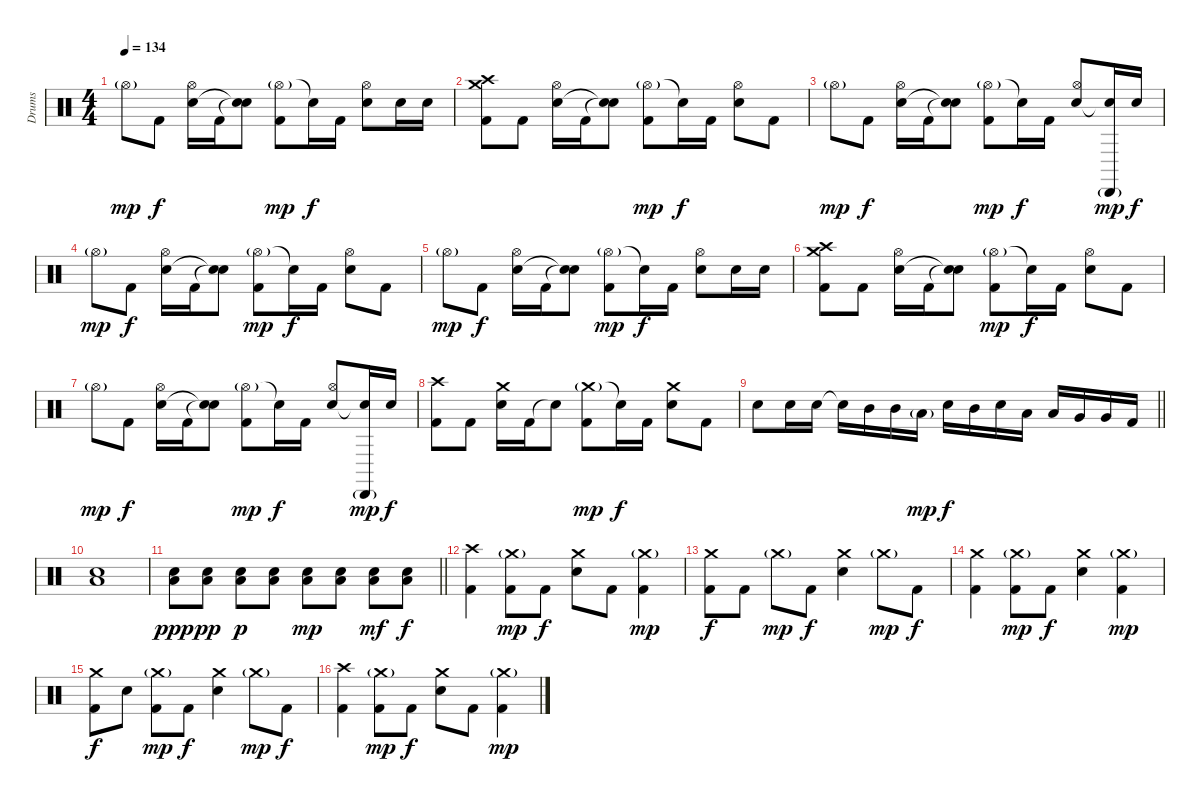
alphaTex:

\track ("Drums" "Drums") {instrument percussion}
\staff {score}
\articulation defaults
\ts (4 4)
\tempo 134
\clef neutral
\ks c "Hi-Hat (open)"{g}.8{dy mp} "Kick (hit) 2".8{dy f}
("Hi-Hat (open)" "Electric Snare (hit)").16 "Kick (hit) 2".16 ("Snare (hit)"{t} "Snare (hit)"{t}).8 ("Hi-Hat (open)"{g} "Kick (hit) 2").8{dy mp} "Snare (hit)"{t}.16{dy f} "Kick (hit) 2".16 ("Hi-Hat (open)" "Electric Snare (hit)").8 "Electric Snare (hit)".16 "Electric Snare (hit)".16 |
("Crash high (hit)" "Crash medium (hit)" "Kick (hit) 2").8 "Kick (hit) 2".8 ("Hi-Hat (open)" "Electric Snare (hit)").16 "Kick (hit) 2".16 ("Snare (hit)"{t} "Snare (hit)"{t}).8 ("Hi-Hat (open)"{g} "Kick (hit) 2").8{dy mp} "Snare (hit)"{t}.16{dy f} "Kick (hit) 2".16 ("Hi-Hat (open)" "Electric Snare (hit)").8 "Kick (hit) 2".8 |
"Hi-Hat (open)"{g}.8{dy mp} "Kick (hit) 2".8{dy f} ("Hi-Hat (open)" "Electric Snare (hit)").16 "Kick (hit) 2".16 ("Snare (hit)"{t} "Snare (hit)"{t}).8 ("Hi-Hat (open)"{g} "Kick (hit) 2").8{dy mp} "Snare (hit)"{t}.16{dy f} "Kick (hit) 2".16 ("Hi-Hat (open)" "Electric Snare (hit)").8 ("Cabasa (hit)"{g} "Snare (hit)"{t}).16{dy mp} "Electric Snare (hit)".16{dy f} |
"Hi-Hat (open)"{g}.8{dy mp} "Kick (hit) 2".8{dy f} ("Hi-Hat (open)" "Electric Snare (hit)").16 "Kick (hit) 2".16 ("Snare (hit)"{t} "Snare (hit)"{t}).8 ("Hi-Hat (open)"{g} "Kick (hit) 2").8{dy mp} "Snare (hit)"{t}.16{dy f} "Kick (hit) 2".16 ("Hi-Hat (open)" "Electric Snare (hit)").8 "Kick (hit) 2".8 |
"Hi-Hat (open)"{g}.8{dy mp} "Kick (hit) 2".8{dy f} ("Hi-Hat (open)" "Electric Snare (hit)").16 "Kick (hit) 2".16 ("Snare (hit)"{t} "Snare (hit)"{t}).8 ("Hi-Hat (open)"{g} "Kick (hit) 2").8{dy mp} "Snare (hit)"{t}.16{dy f} "Kick (hit) 2".16 ("Hi-Hat (open)" "Electric Snare (hit)").8 "Electric Snare (hit)".16 "Electric Snare (hit)".16 |
("Crash high (hit)" "Crash medium (hit)" "Kick (hit) 2").8 "Kick (hit) 2".8 ("Hi-Hat (open)" "Electric Snare (hit)").16 "Kick (hit) 2".16 ("Snare (hit)"{t} "Snare (hit)"{t}).8 ("Hi-Hat (open)"{g} "Kick (hit) 2").8{dy mp} "Snare (hit)"{t}.16{dy f} "Kick (hit) 2".16 ("Hi-Hat (open)" "Electric Snare (hit)").8 "Kick (hit) 2".8 |
"Hi-Hat (open)"{g}.8{dy mp} "Kick (hit) 2".8{dy f} ("Hi-Hat (open)" "Electric Snare (hit)").16 "Kick (hit) 2".16 ("Snare (hit)"{t} "Snare (hit)"{t}).8 ("Hi-Hat (open)"{g} "Kick (hit) 2").8{dy mp} "Snare (hit)"{t}.16{dy f} "Kick (hit) 2".16 ("Hi-Hat (open)" "Electric Snare (hit)").8 ("Cabasa (hit)"{g} "Snare (hit)"{t}).16{dy mp} "Electric Snare (hit)".16{dy f} |
("Crash high (hit)" "Kick (hit) 2").8 "Kick (hit) 2".8 ("Crash medium (hit)" "Electric Snare (hit)").16 "Kick (hit) 2".16 "Snare (hit)"{t}.8 ("Crash medium (hit)"{g} "Kick (hit) 2").8{dy mp} "Snare (hit)"{t}.16{dy f} "Kick (hit) 2".16 ("Crash medium (hit)" "Electric Snare (hit)").8 "Kick (hit) 2".8 |
\barLineRight lightlight "Electric Snare (hit)".8 "Electric Snare (hit)".16 "Electric Snare (hit)".16 "Snare (hit)"{t}.16 "Mid Tom (hit)".16 "Mid Tom (hit)".16 "Low Tom (hit)"{g}.16{dy mp} "Electric Snare (hit)".16{dy f} "Mid Tom (hit)".16 "Electric Snare (hit)".16 "Low Tom (hit)".16 "Low Tom (hit)".16 "Very Low Tom (hit)".16 "Very Low Tom (hit)".16 "Kick (hit) 2".16
|
("Low Tom (hit)" "Electric Snare (hit)").1 |
\barLineRight lightlight
("Low Tom (hit)" "Electric Snare (hit)").8{dy ppp} ("Low Tom (hit)" "Electric Snare (hit)").8{dy pp} ("Low Tom (hit)" "Electric Snare (hit)").8{dy p} ("Low Tom (hit)" "Electric Snare (hit)").8 ("Low Tom (hit)" "Electric Snare (hit)").8{dy mp} ("Low Tom (hit)" "Electric Snare (hit)").8 ("Low Tom (hit)" "Electric Snare (hit)").8{dy mf} ("Low Tom (hit)" "Electric Snare (hit)").8{dy f} |
("Crash high (hit)" "Kick (hit) 2").4 ("Crash medium (hit)"{g} "Kick (hit) 2").8{dy mp} "Kick (hit) 2".8{dy f} ("Crash medium (hit)" "Electric Snare (hit)").8 "Kick (hit) 2".8 ("Crash medium (hit)"{g} "Kick (hit) 2").4{dy mp} |
("Crash medium (hit)" "Kick (hit) 2").8{dy f} "Kick (hit) 2".8 "Crash medium (hit)"{g}.8{dy mp} "Kick (hit) 2".8{dy f} ("Crash medium (hit)" "Electric Snare (hit)").4 "Crash medium (hit)"{g}.8{dy mp} "Kick (hit) 2".8{dy f} |
("Crash medium (hit)" "Kick (hit) 2").4 ("Crash medium (hit)"{g} "Kick (hit) 2").8{dy mp} "Kick (hit) 2".8{dy f} ("Crash medium (hit)" "Electric Snare (hit)").4 ("Crash medium (hit)"{g} "Kick (hit) 2").4{dy mp} |
("Crash medium (hit)" "Kick (hit) 2").8{dy f} "Electric Snare (hit)".8 ("Crash medium (hit)"{g} "Kick (hit) 2").8{dy mp} "Kick (hit) 2".8{dy f} ("Crash medium (hit)" "Electric Snare (hit)").4 "Crash medium (hit)"{g}.8{dy mp} "Kick (hit) 2".8{dy f} |
("Crash high (hit)" "Kick (hit) 2").4 ("Crash medium (hit)"{g} "Kick (hit) 2").8{dy mp} "Kick (hit) 2".8{dy f} ("Crash medium (hit)" "Electric Snare (hit)").8 "Kick (hit) 2".8 ("Crash medium (hit)"{g} "Kick (hit) 2").4{dy mp}
